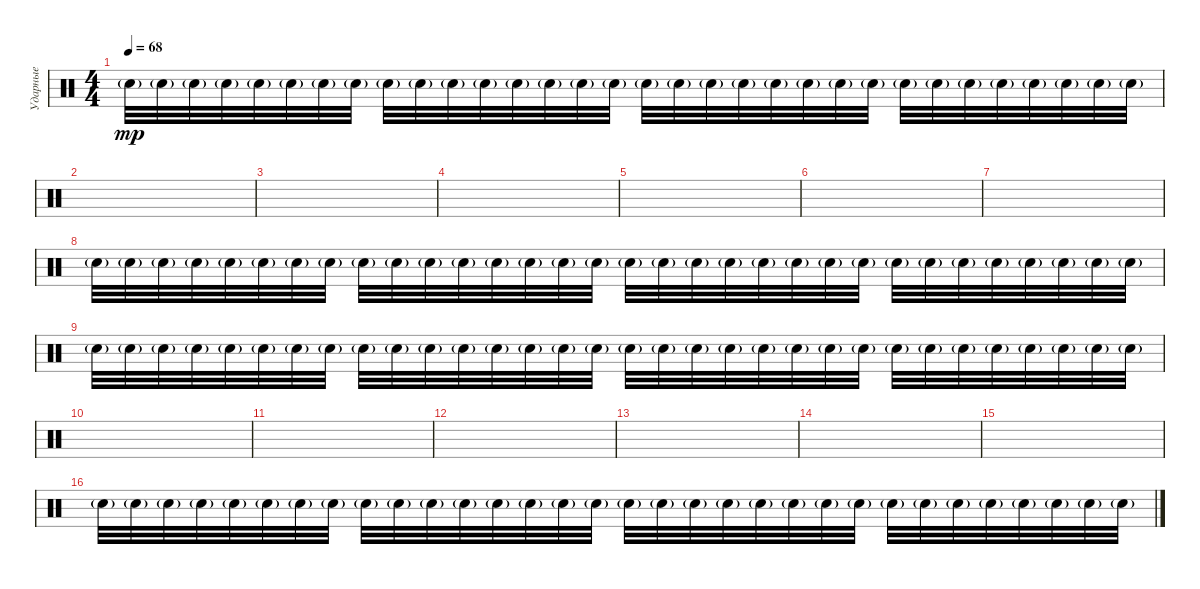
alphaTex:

\track ("Ударные" "Ударные") {instrument percussion}
\staff {score}
\articulation defaults
\ts (4 4)
\tempo 68
\clef neutral
\ks c "Snare (hit) 2"{g}.32{dy mp} "Snare (hit) 2"{g}.32 "Snare (hit) 2"{g}.32 "Snare (hit) 2"{g}.32 "Snare (hit) 2"{g}.32 "Snare (hit) 2"{g}.32 "Snare (hit) 2"{g}.32 "Snare (hit) 2"{g}.32 "Snare (hit) 2"{g}.32 "Snare (hit) 2"{g}.32 "Snare (hit) 2"{g}.32 "Snare (hit) 2"{g}.32 "Snare (hit) 2"{g}.32 "Snare (hit) 2"{g}.32 "Snare (hit) 2"{g}.32 "Snare (hit) 2"{g}.32 "Snare (hit) 2"{g}.32 "Snare (hit) 2"{g}.32 "Snare (hit) 2"{g}.32 "Snare (hit) 2"{g}.32 "Snare (hit) 2"{g}.32 "Snare (hit) 2"{g}.32 "Snare (hit) 2"{g}.32 "Snare (hit) 2"{g}.32 "Snare (hit) 2"{g}.32 "Snare (hit) 2"{g}.32 "Snare (hit) 2"{g}.32 "Snare (hit) 2"{g}.32 "Snare (hit) 2"{g}.32 "Snare (hit) 2"{g}.32 "Snare (hit) 2"{g}.32 "Snare (hit) 2"{g}.32
|
|
|
|
|
|
|
"Snare (hit) 2"{g}.32 "Snare (hit) 2"{g}.32 "Snare (hit) 2"{g}.32 "Snare (hit) 2"{g}.32 "Snare (hit) 2"{g}.32 "Snare (hit) 2"{g}.32 "Snare (hit) 2"{g}.32 "Snare (hit) 2"{g}.32 "Snare (hit) 2"{g}.32 "Snare (hit) 2"{g}.32 "Snare (hit) 2"{g}.32 "Snare (hit) 2"{g}.32 "Snare (hit) 2"{g}.32 "Snare (hit) 2"{g}.32 "Snare (hit) 2"{g}.32 "Snare (hit) 2"{g}.32 "Snare (hit) 2"{g}.32 "Snare (hit) 2"{g}.32 "Snare (hit) 2"{g}.32 "Snare (hit) 2"{g}.32 "Snare (hit) 2"{g}.32 "Snare (hit) 2"{g}.32 "Snare (hit) 2"{g}.32 "Snare (hit) 2"{g}.32 "Snare (hit) 2"{g}.32 "Snare (hit) 2"{g}.32 "Snare (hit) 2"{g}.32 "Snare (hit) 2"{g}.32 "Snare (hit) 2"{g}.32 "Snare (hit) 2"{g}.32 "Snare (hit) 2"{g}.32 "Snare (hit) 2"{g}.32 |
"Snare (hit) 2"{g}.32 "Snare (hit) 2"{g}.32 "Snare (hit) 2"{g}.32 "Snare (hit) 2"{g}.32 "Snare (hit) 2"{g}.32 "Snare (hit) 2"{g}.32 "Snare (hit) 2"{g}.32 "Snare (hit) 2"{g}.32 "Snare (hit) 2"{g}.32 "Snare (hit) 2"{g}.32 "Snare (hit) 2"{g}.32 "Snare (hit) 2"{g}.32 "Snare (hit) 2"{g}.32 "Snare (hit) 2"{g}.32 "Snare (hit) 2"{g}.32 "Snare (hit) 2"{g}.32 "Snare (hit) 2"{g}.32 "Snare (hit) 2"{g}.32 "Snare (hit) 2"{g}.32 "Snare (hit) 2"{g}.32 "Snare (hit) 2"{g}.32 "Snare (hit) 2"{g}.32 "Snare (hit) 2"{g}.32 "Snare (hit) 2"{g}.32 "Snare (hit) 2"{g}.32 "Snare (hit) 2"{g}.32 "Snare (hit) 2"{g}.32 "Snare (hit) 2"{g}.32 "Snare (hit) 2"{g}.32 "Snare (hit) 2"{g}.32 "Snare (hit) 2"{g}.32 "Snare (hit) 2"{g}.32 |
|
|
|
|
|
|
"Snare (hit) 2"{g}.32 "Snare (hit) 2"{g}.32 "Snare (hit) 2"{g}.32 "Snare (hit) 2"{g}.32 "Snare (hit) 2"{g}.32 "Snare (hit) 2"{g}.32 "Snare (hit) 2"{g}.32 "Snare (hit) 2"{g}.32 "Snare (hit) 2"{g}.32 "Snare (hit) 2"{g}.32 "Snare (hit) 2"{g}.32 "Snare (hit) 2"{g}.32 "Snare (hit) 2"{g}.32 "Snare (hit) 2"{g}.32 "Snare (hit) 2"{g}.32 "Snare (hit) 2"{g}.32 "Snare (hit) 2"{g}.32 "Snare (hit) 2"{g}.32 "Snare (hit) 2"{g}.32 "Snare (hit) 2"{g}.32 "Snare (hit) 2"{g}.32 "Snare (hit) 2"{g}.32 "Snare (hit) 2"{g}.32 "Snare (hit) 2"{g}.32 "Snare (hit) 2"{g}.32 "Snare (hit) 2"{g}.32 "Snare (hit) 2"{g}.32 "Snare (hit) 2"{g}.32 "Snare (hit) 2"{g}.32 "Snare (hit) 2"{g}.32 "Snare (hit) 2"{g}.32 "Snare (hit) 2"{g}.32
